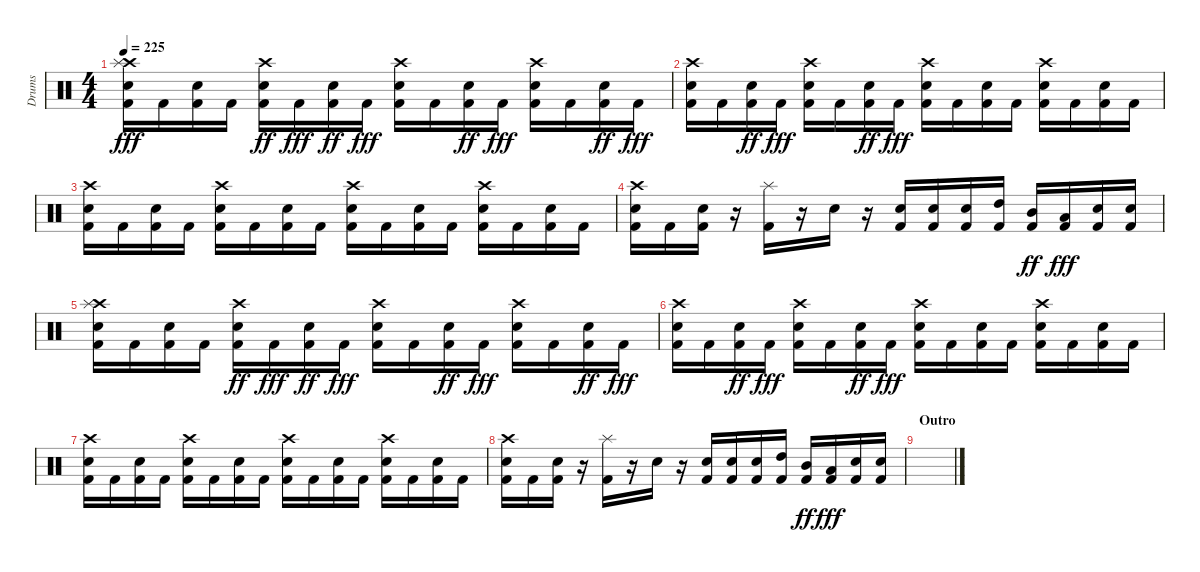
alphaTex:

\track ("Drums" "Drums") {instrument percussion}
\staff {score}
\articulation defaults
\ts (4 4)
\tempo 225
\clef neutral
\ks c
("Kick (hit) 2" "Snare (hit) 2" "Crash high (hit)" "Splash (hit)").16{dy fff} "Kick (hit) 2".16 ("Snare (hit) 2" "Kick (hit) 2").16 "Kick (hit) 2".16 ("Crash high (hit)" "Kick (hit) 2" "Snare (hit) 2").16{dy ff} "Kick (hit) 2".16{dy fff} ("Kick (hit) 2" "Snare (hit) 2").16{dy ff} "Kick (hit) 2".16{dy fff} ("Kick (hit) 2" "Snare (hit) 2" "Crash high (hit)").16 "Kick (hit) 2".16 ("Kick (hit) 2" "Snare (hit) 2").16{dy ff} "Kick (hit) 2".16{dy fff} ("Kick (hit) 2" "Snare (hit) 2" "Crash high (hit)").16 "Kick (hit) 2".16 ("Kick (hit) 2" "Snare (hit) 2").16{dy ff} "Kick (hit) 2".16{dy fff} |
("Kick (hit) 2" "Snare (hit) 2" "Crash high (hit)").16 "Kick (hit) 2".16 ("Kick (hit) 2" "Snare (hit) 2").16{dy ff} "Kick (hit) 2".16{dy fff} ("Kick (hit) 2" "Snare (hit) 2" "Crash high (hit)").16 "Kick (hit) 2".16 ("Kick (hit) 2" "Snare (hit) 2").16{dy ff} "Kick (hit) 2".16{dy fff} ("Kick (hit) 2" "Snare (hit) 2" "Crash high (hit)").16 "Kick (hit) 2".16 ("Snare (hit) 2" "Kick (hit) 2").16 "Kick (hit) 2".16 ("Crash high (hit)" "Kick (hit) 2" "Snare (hit) 2").16 "Kick (hit) 2".16 ("Snare (hit) 2" "Kick (hit) 2").16 "Kick (hit) 2".16 |
("Kick (hit) 2" "Snare (hit) 2" "Crash high (hit)").16 "Kick (hit) 2".16 ("Kick (hit) 2" "Snare (hit) 2").16 "Kick (hit) 2".16 ("Kick (hit) 2" "Snare (hit) 2" "Crash high (hit)").16 "Kick (hit) 2".16 ("Kick (hit) 2" "Snare (hit) 2").16 "Kick (hit) 2".16 ("Kick (hit) 2" "Snare (hit) 2" "Crash high (hit)").16 "Kick (hit) 2".16 ("Kick (hit) 2" "Snare (hit) 2").16 "Kick (hit) 2".16 ("Kick (hit) 2" "Snare (hit) 2" "Crash high (hit)").16 "Kick (hit) 2".16 ("Kick (hit) 2" "Snare (hit) 2").16 "Kick (hit) 2".16 |
("Kick (hit) 2" "Snare (hit) 2" "Crash high (hit)").16 "Kick (hit) 2".16 ("Kick (hit) 2" "Snare (hit) 2").16 r.16 ("Kick (hit) 2" "Splash (hit)").16 r.16 "Snare (hit) 2".16 r.16 ("Kick (hit) 2" "Snare (hit) 2").16 ("Snare (hit) 2" "Kick (hit) 2").16 ("Snare (hit) 2" "Kick (hit) 2").16 ("High Tom (hit)" "Kick (hit) 2").16 ("Mid Tom (hit)" "Kick (hit) 2").16{dy ff} ("Low Tom (hit)" "Kick (hit) 2").16{dy fff} ("Kick (hit) 2" "Snare (hit) 2").16 ("Kick (hit) 2" "Snare (hit) 2").16 |
("Kick (hit) 2" "Snare (hit) 2" "Crash high (hit)" "Splash (hit)").16 "Kick (hit) 2".16 ("Snare (hit) 2" "Kick (hit) 2").16 "Kick (hit) 2".16 ("Crash high (hit)" "Kick (hit) 2" "Snare (hit) 2").16{dy ff} "Kick (hit) 2".16{dy fff} ("Kick (hit) 2" "Snare (hit) 2").16{dy ff} "Kick (hit) 2".16{dy fff} ("Kick (hit) 2" "Snare (hit) 2" "Crash high (hit)").16 "Kick (hit) 2".16 ("Kick (hit) 2" "Snare (hit) 2").16{dy ff} "Kick (hit) 2".16{dy fff} ("Kick (hit) 2" "Snare (hit) 2" "Crash high (hit)").16 "Kick (hit) 2".16 ("Kick (hit) 2" "Snare (hit) 2").16{dy ff} "Kick (hit) 2".16{dy fff} |
("Kick (hit) 2" "Snare (hit) 2" "Crash high (hit)").16 "Kick (hit) 2".16 ("Kick (hit) 2" "Snare (hit) 2").16{dy ff} "Kick (hit) 2".16{dy fff} ("Kick (hit) 2" "Snare (hit) 2" "Crash high (hit)").16 "Kick (hit) 2".16 ("Kick (hit) 2" "Snare (hit) 2").16{dy ff} "Kick (hit) 2".16{dy fff} ("Kick (hit) 2" "Snare (hit) 2" "Crash high (hit)").16 "Kick (hit) 2".16 ("Snare (hit) 2" "Kick (hit) 2").16 "Kick (hit) 2".16 ("Crash high (hit)" "Kick (hit) 2" "Snare (hit) 2").16 "Kick (hit) 2".16 ("Snare (hit) 2" "Kick (hit) 2").16 "Kick (hit) 2".16 |
("Kick (hit) 2" "Snare (hit) 2" "Crash high (hit)").16 "Kick (hit) 2".16 ("Kick (hit) 2" "Snare (hit) 2").16 "Kick (hit) 2".16 ("Kick (hit) 2" "Snare (hit) 2" "Crash high (hit)").16 "Kick (hit) 2".16 ("Kick (hit) 2" "Snare (hit) 2").16 "Kick (hit) 2".16 ("Kick (hit) 2" "Snare (hit) 2" "Crash high (hit)").16 "Kick (hit) 2".16 ("Kick (hit) 2" "Snare (hit) 2").16 "Kick (hit) 2".16 ("Kick (hit) 2" "Snare (hit) 2" "Crash high (hit)").16 "Kick (hit) 2".16 ("Kick (hit) 2" "Snare (hit) 2").16 "Kick (hit) 2".16 |
("Kick (hit) 2" "Snare (hit) 2" "Crash high (hit)").16 "Kick (hit) 2".16 ("Kick (hit) 2" "Snare (hit) 2").16 r.16 ("Kick (hit) 2" "Splash (hit)").16 r.16 "Snare (hit) 2".16 r.16 ("Kick (hit) 2" "Snare (hit) 2").16 ("Snare (hit) 2" "Kick (hit) 2").16 ("Snare (hit) 2" "Kick (hit) 2").16 ("High Tom (hit)" "Kick (hit) 2").16 ("Mid Tom (hit)" "Kick (hit) 2").16{dy ff} ("Low Tom (hit)" "Kick (hit) 2").16{dy fff} ("Kick (hit) 2" "Snare (hit) 2").16 ("Kick (hit) 2" "Snare (hit) 2").16 |
\section ("" "Outro")
